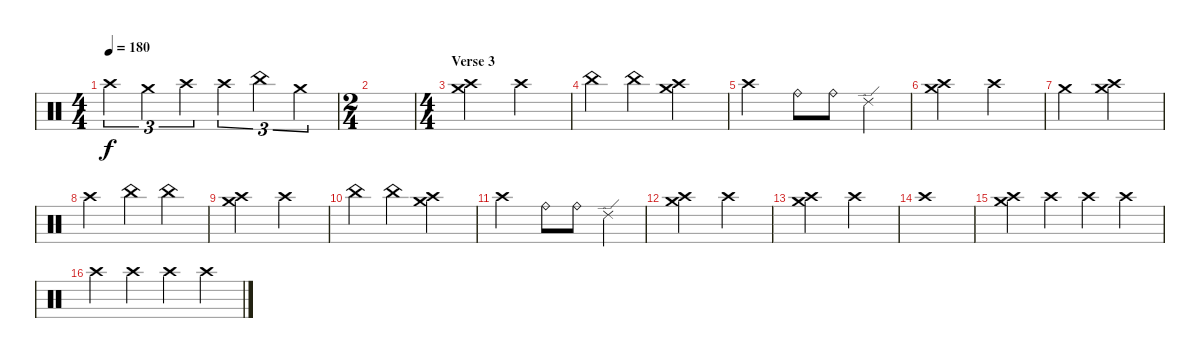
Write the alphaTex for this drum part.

\track "" {instrument percussion}
\staff {score}
\articulation defaults
\ts (4 4)
\tempo 180
\clef neutral
\ks c "Crash high (hit)".4{tu (3 2) dy f} "Crash medium (hit)".4{tu (3 2)} "Crash high (hit)".4{tu (3 2)} "Crash high (hit)".4{tu (3 2)} "China (hit)".4{tu (3 2)} "Crash medium (hit)".4{tu (3 2)}
|
\ts (2 4)
|
\ts (4 4)
\section ("" "Verse 3")
("Crash medium (hit)" "Crash high (hit)").2 "Crash high (hit)".2 |
"China (hit)".4 "China (hit)".4 ("Crash medium (hit)" "Crash high (hit)").2 |
"Crash high (hit)".2 "Ride (bell)".8 "Ride (bell)".8 "Ride (edge) 2".4 |
("Crash medium (hit)" "Crash high (hit)").2 "Crash high (hit)".2 |
"Crash medium (hit)".2 ("Crash medium (hit)" "Crash high (hit)").2 |
"Crash high (hit)".2 "China (hit)".4 "China (hit)".4 |
("Crash medium (hit)" "Crash high (hit)").2 "Crash high (hit)".2 |
"China (hit)".4 "China (hit)".4 ("Crash medium (hit)" "Crash high (hit)").2 |
"Crash high (hit)".2 "Ride (bell)".8 "Ride (bell)".8 "Ride (edge) 2".4 |
("Crash medium (hit)" "Crash high (hit)").2 "Crash high (hit)".2 |
("Crash high (hit)" "Crash medium (hit)").2 "Crash high (hit)".2 |
"Crash high (hit)".1 |
("Crash medium (hit)" "Crash high (hit)").4 "Crash high (hit)".4 "Crash high (hit)".4 "Crash high (hit)".4 |
"Crash high (hit)".4 "Crash high (hit)".4 "Crash high (hit)".4 "Crash high (hit)".4
